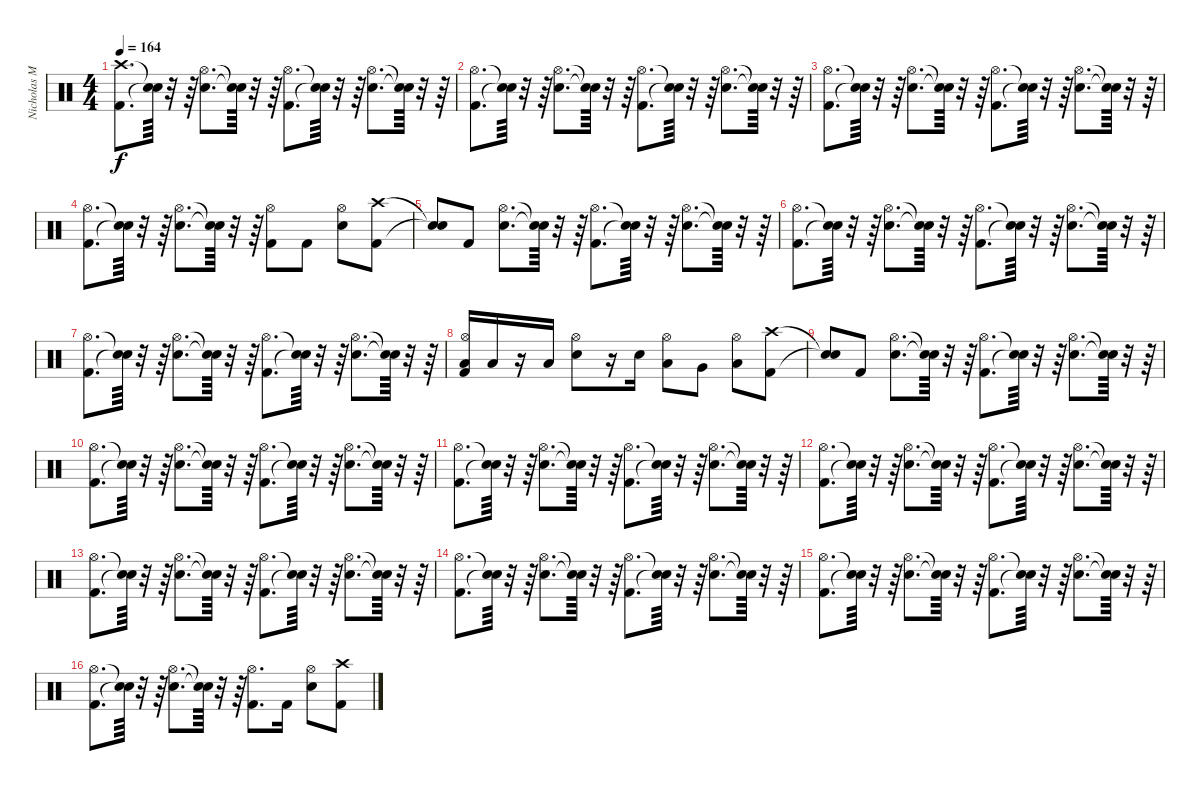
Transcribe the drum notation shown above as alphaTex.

\track ("Nicholas McBrain (Drums)" "Nicholas M") {instrument percussion}
\staff {score}
\articulation defaults
\ts (4 4)
\tempo 164
\clef neutral
\ks c
("Kick (hit) 2" "Crash high (hit)").8{d dy f} ("Snare (hit)"{t} "Snare (hit)"{t}).64 r.32 r.64 ("Snare (hit) 2" "Hi-Hat (open)").8{d} ("Snare (hit)"{t} "Snare (hit)"{t}).64 r.32 r.64 ("Kick (hit) 2" "Hi-Hat (open)").8{d} ("Snare (hit)"{t} "Snare (hit)"{t}).64 r.32 r.64 ("Snare (hit) 2" "Hi-Hat (open)").8{d} ("Snare (hit)"{t} "Snare (hit)"{t}).64 r.32 r.64 |
("Kick (hit) 2" "Hi-Hat (open)").8{d} ("Snare (hit)"{t} "Snare (hit)"{t}).64 r.32 r.64 ("Snare (hit) 2" "Hi-Hat (open)").8{d} ("Snare (hit)"{t} "Snare (hit)"{t}).64 r.32 r.64 ("Kick (hit) 2" "Hi-Hat (open)").8{d} ("Snare (hit)"{t} "Snare (hit)"{t}).64 r.32 r.64 ("Snare (hit) 2" "Hi-Hat (open)").8{d} ("Snare (hit)"{t} "Snare (hit)"{t}).64 r.32 r.64 |
("Kick (hit) 2" "Hi-Hat (open)").8{d} ("Snare (hit)"{t} "Snare (hit)"{t}).64 r.32 r.64 ("Snare (hit) 2" "Hi-Hat (open)").8{d} ("Snare (hit)"{t} "Snare (hit)"{t}).64 r.32 r.64 ("Kick (hit) 2" "Hi-Hat (open)").8{d} ("Snare (hit)"{t} "Snare (hit)"{t}).64 r.32 r.64 ("Snare (hit) 2" "Hi-Hat (open)").8{d} ("Snare (hit)"{t} "Snare (hit)"{t}).64 r.32 r.64 |
("Kick (hit) 2" "Hi-Hat (open)").8{d} ("Snare (hit)"{t} "Snare (hit)"{t}).64 r.32 r.64 ("Snare (hit) 2" "Hi-Hat (open)").8{d} ("Snare (hit)"{t} "Snare (hit)"{t}).64 r.32 r.64 ("Kick (hit) 2" "Hi-Hat (open)").8 "Kick (hit) 2".8 ("Snare (hit) 2" "Hi-Hat (open)").8 ("Kick (hit) 2" "Crash high (hit)").8 |
("Snare (hit)"{t} "Snare (hit)"{t}).8 "Kick (hit) 2".8 ("Snare (hit) 2" "Hi-Hat (open)").8{d} ("Snare (hit)"{t} "Snare (hit)"{t}).64 r.32 r.64 ("Kick (hit) 2" "Hi-Hat (open)").8{d} ("Snare (hit)"{t} "Snare (hit)"{t}).64 r.32 r.64 ("Snare (hit) 2" "Hi-Hat (open)").8{d} ("Snare (hit)"{t} "Snare (hit)"{t}).64 r.32 r.64 |
("Kick (hit) 2" "Hi-Hat (open)").8{d} ("Snare (hit)"{t} "Snare (hit)"{t}).64 r.32 r.64 ("Snare (hit) 2" "Hi-Hat (open)").8{d} ("Snare (hit)"{t} "Snare (hit)"{t}).64 r.32 r.64 ("Kick (hit) 2" "Hi-Hat (open)").8{d} ("Snare (hit)"{t} "Snare (hit)"{t}).64 r.32 r.64 ("Snare (hit) 2" "Hi-Hat (open)").8{d} ("Snare (hit)"{t} "Snare (hit)"{t}).64 r.32 r.64 |
("Kick (hit) 2" "Hi-Hat (open)").8{d} ("Snare (hit)"{t} "Snare (hit)"{t}).64 r.32 r.64 ("Snare (hit) 2" "Hi-Hat (open)").8{d} ("Snare (hit)"{t} "Snare (hit)"{t}).64 r.32 r.64 ("Kick (hit) 2" "Hi-Hat (open)").8{d} ("Snare (hit)"{t} "Snare (hit)"{t}).64 r.32 r.64 ("Snare (hit) 2" "Hi-Hat (open)").8{d} ("Snare (hit)"{t} "Snare (hit)"{t}).64 r.32 r.64 |
("Kick (hit) 2" "Low Floor Tom (hit)" "Hi-Hat (open)").16 "Low Floor Tom (hit)".16 r.16 "Low Floor Tom (hit)".16 ("Snare (hit) 2" "Hi-Hat (open)").8 r.16 "Snare (hit) 2".16 ("Low Tom (hit)" "Hi-Hat (open)").8 "Very Low Tom (hit)".8 ("Low Floor Tom (hit)" "Hi-Hat (open)").8 ("Kick (hit) 2" "Crash high (hit)").8 |
("Snare (hit)"{t} "Snare (hit)"{t}).8 "Kick (hit) 2".8 ("Snare (hit) 2" "Hi-Hat (open)").8{d} ("Snare (hit)"{t} "Snare (hit)"{t}).64 r.32 r.64 ("Kick (hit) 2" "Hi-Hat (open)").8{d} ("Snare (hit)"{t} "Snare (hit)"{t}).64 r.32 r.64 ("Snare (hit) 2" "Hi-Hat (open)").8{d} ("Snare (hit)"{t} "Snare (hit)"{t}).64 r.32 r.64 |
("Kick (hit) 2" "Hi-Hat (open)").8{d} ("Snare (hit)"{t} "Snare (hit)"{t}).64 r.32 r.64 ("Snare (hit) 2" "Hi-Hat (open)").8{d} ("Snare (hit)"{t} "Snare (hit)"{t}).64 r.32 r.64 ("Kick (hit) 2" "Hi-Hat (open)").8{d} ("Snare (hit)"{t} "Snare (hit)"{t}).64 r.32 r.64 ("Snare (hit) 2" "Hi-Hat (open)").8{d} ("Snare (hit)"{t} "Snare (hit)"{t}).64 r.32 r.64 |
("Kick (hit) 2" "Hi-Hat (open)").8{d} ("Snare (hit)"{t} "Snare (hit)"{t}).64 r.32 r.64 ("Snare (hit) 2" "Hi-Hat (open)").8{d} ("Snare (hit)"{t} "Snare (hit)"{t}).64 r.32 r.64 ("Kick (hit) 2" "Hi-Hat (open)").8{d} ("Snare (hit)"{t} "Snare (hit)"{t}).64 r.32 r.64 ("Snare (hit) 2" "Hi-Hat (open)").8{d} ("Snare (hit)"{t} "Snare (hit)"{t}).64 r.32 r.64 |
("Kick (hit) 2" "Hi-Hat (open)").8{d} ("Snare (hit)"{t} "Snare (hit)"{t}).64 r.32 r.64 ("Snare (hit) 2" "Hi-Hat (open)").8{d} ("Snare (hit)"{t} "Snare (hit)"{t}).64 r.32 r.64 ("Kick (hit) 2" "Hi-Hat (open)").8{d} ("Snare (hit)"{t} "Snare (hit)"{t}).64 r.32 r.64 ("Snare (hit) 2" "Hi-Hat (open)").8{d} ("Snare (hit)"{t} "Snare (hit)"{t}).64 r.32 r.64 |
("Kick (hit) 2" "Hi-Hat (open)").8{d} ("Snare (hit)"{t} "Snare (hit)"{t}).64 r.32 r.64 ("Snare (hit) 2" "Hi-Hat (open)").8{d} ("Snare (hit)"{t} "Snare (hit)"{t}).64 r.32 r.64 ("Kick (hit) 2" "Hi-Hat (open)").8{d} ("Snare (hit)"{t} "Snare (hit)"{t}).64 r.32 r.64 ("Snare (hit) 2" "Hi-Hat (open)").8{d} ("Snare (hit)"{t} "Snare (hit)"{t}).64 r.32 r.64 |
("Kick (hit) 2" "Hi-Hat (open)").8{d} ("Snare (hit)"{t} "Snare (hit)"{t}).64 r.32 r.64 ("Snare (hit) 2" "Hi-Hat (open)").8{d} ("Snare (hit)"{t} "Snare (hit)"{t}).64 r.32 r.64 ("Kick (hit) 2" "Hi-Hat (open)").8{d} ("Snare (hit)"{t} "Snare (hit)"{t}).64 r.32 r.64 ("Snare (hit) 2" "Hi-Hat (open)").8{d} ("Snare (hit)"{t} "Snare (hit)"{t}).64 r.32 r.64 |
("Kick (hit) 2" "Hi-Hat (open)").8{d} ("Snare (hit)"{t} "Snare (hit)"{t}).64 r.32 r.64 ("Snare (hit) 2" "Hi-Hat (open)").8{d} ("Snare (hit)"{t} "Snare (hit)"{t}).64 r.32 r.64 ("Kick (hit) 2" "Hi-Hat (open)").8{d} ("Snare (hit)"{t} "Snare (hit)"{t}).64 r.32 r.64 ("Snare (hit) 2" "Hi-Hat (open)").8{d} ("Snare (hit)"{t} "Snare (hit)"{t}).64 r.32 r.64 |
("Kick (hit) 2" "Hi-Hat (open)").8{d} ("Snare (hit)"{t} "Snare (hit)"{t}).64 r.32 r.64 ("Snare (hit) 2" "Hi-Hat (open)").8{d} ("Snare (hit)"{t} "Snare (hit)"{t}).64 r.32 r.64 ("Kick (hit) 2" "Hi-Hat (open)").8{d} "Kick (hit) 2".16 ("Snare (hit) 2" "Hi-Hat (open)").8 ("Kick (hit) 2" "Crash high (hit)").8
